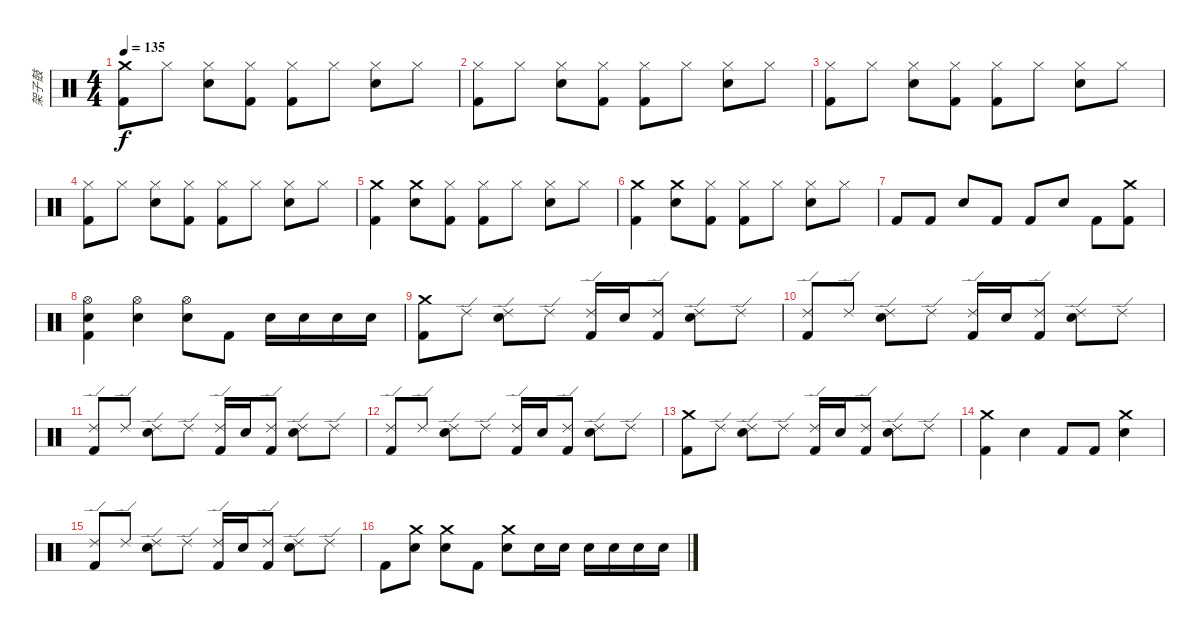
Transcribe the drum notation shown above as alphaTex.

\track ("架子鼓" "架子鼓") {instrument percussion}
\staff {score}
\articulation defaults
\ts (4 4)
\tempo 135
\clef neutral
\ks c
("Crash medium (hit)" "Kick (hit) 2").8{dy f} "Hi-Hat (closed)".8 ("Hi-Hat (closed)" "Electric Snare (hit)").8 ("Hi-Hat (closed)" "Kick (hit) 2").8 ("Hi-Hat (closed)" "Kick (hit) 2").8 "Hi-Hat (closed)".8 ("Hi-Hat (closed)" "Electric Snare (hit)").8 "Hi-Hat (closed)".8 |
("Hi-Hat (closed)" "Kick (hit) 2").8 "Hi-Hat (closed)".8 ("Hi-Hat (closed)" "Electric Snare (hit)").8 ("Hi-Hat (closed)" "Kick (hit) 2").8 ("Hi-Hat (closed)" "Kick (hit) 2").8 "Hi-Hat (closed)".8 ("Hi-Hat (closed)" "Electric Snare (hit)").8 "Hi-Hat (closed)".8 |
("Hi-Hat (closed)" "Kick (hit) 2").8 "Hi-Hat (closed)".8 ("Hi-Hat (closed)" "Electric Snare (hit)").8 ("Hi-Hat (closed)" "Kick (hit) 2").8 ("Hi-Hat (closed)" "Kick (hit) 2").8 "Hi-Hat (closed)".8 ("Hi-Hat (closed)" "Electric Snare (hit)").8 "Hi-Hat (closed)".8 |
("Hi-Hat (closed)" "Kick (hit) 2").8 "Hi-Hat (closed)".8 ("Hi-Hat (closed)" "Electric Snare (hit)").8 ("Hi-Hat (closed)" "Kick (hit) 2").8 ("Hi-Hat (closed)" "Kick (hit) 2").8 "Hi-Hat (closed)".8 ("Hi-Hat (closed)" "Electric Snare (hit)").8 "Hi-Hat (closed)".8 |
("Crash medium (hit)" "Kick (hit) 2").4 ("Crash medium (hit)" "Electric Snare (hit)").8 ("Hi-Hat (closed)" "Kick (hit) 2").8 ("Hi-Hat (closed)" "Kick (hit) 2").8 "Hi-Hat (closed)".8 ("Hi-Hat (closed)" "Electric Snare (hit)").8 "Hi-Hat (closed)".8 |
("Crash medium (hit)" "Kick (hit) 2").4 ("Crash medium (hit)" "Electric Snare (hit)").8 ("Hi-Hat (closed)" "Kick (hit) 2").8 ("Hi-Hat (closed)" "Kick (hit) 2").8 "Hi-Hat (closed)".8 ("Hi-Hat (closed)" "Electric Snare (hit)").8 "Hi-Hat (closed)".8 |
"Kick (hit) 2".8 "Kick (hit) 2".8 "Electric Snare (hit)".8 "Kick (hit) 2".8 "Kick (hit) 2".8 "Electric Snare (hit)".8 "Kick (hit) 2".8 ("Crash medium (hit)" "Kick (hit) 2").8 |
("Hi-Hat (open)" "Electric Snare (hit)" "Kick (hit) 2").4 ("Hi-Hat (open)" "Electric Snare (hit)").4 ("Hi-Hat (open)" "Electric Snare (hit)").8 "Kick (hit) 2".8 "Electric Snare (hit)".16 "Electric Snare (hit)".16 "Electric Snare (hit)".16 "Electric Snare (hit)".16 |
("Crash medium (hit)" "Kick (hit) 2").8 "Ride (edge) 2".8 ("Ride (edge) 2" "Electric Snare (hit)").8 "Ride (edge) 2".8 ("Ride (edge) 2" "Kick (hit) 2").16 "Electric Snare (hit)".16 ("Ride (edge) 2" "Kick (hit) 2").8 ("Ride (edge) 2" "Electric Snare (hit)").8 "Ride (edge) 2".8 |
("Ride (edge) 2" "Kick (hit) 2").8 "Ride (edge) 2".8 ("Ride (edge) 2" "Electric Snare (hit)").8 "Ride (edge) 2".8 ("Ride (edge) 2" "Kick (hit) 2").16 "Electric Snare (hit)".16 ("Ride (edge) 2" "Kick (hit) 2").8 ("Ride (edge) 2" "Electric Snare (hit)").8 "Ride (edge) 2".8 |
("Ride (edge) 2" "Kick (hit) 2").8 "Ride (edge) 2".8 ("Ride (edge) 2" "Electric Snare (hit)").8 "Ride (edge) 2".8 ("Ride (edge) 2" "Kick (hit) 2").16 "Electric Snare (hit)".16 ("Ride (edge) 2" "Kick (hit) 2").8 ("Ride (edge) 2" "Electric Snare (hit)").8 "Ride (edge) 2".8 |
("Ride (edge) 2" "Kick (hit) 2").8 "Ride (edge) 2".8 ("Ride (edge) 2" "Electric Snare (hit)").8 "Ride (edge) 2".8 ("Ride (edge) 2" "Kick (hit) 2").16 "Electric Snare (hit)".16 ("Ride (edge) 2" "Kick (hit) 2").8 ("Ride (edge) 2" "Electric Snare (hit)").8 "Ride (edge) 2".8 |
("Crash medium (hit)" "Kick (hit) 2").8 "Ride (edge) 2".8 ("Ride (edge) 2" "Electric Snare (hit)").8 "Ride (edge) 2".8 ("Ride (edge) 2" "Kick (hit) 2").16 "Electric Snare (hit)".16 ("Ride (edge) 2" "Kick (hit) 2").8 ("Ride (edge) 2" "Electric Snare (hit)").8 "Ride (edge) 2".8 |
("Crash medium (hit)" "Kick (hit) 2").4 "Electric Snare (hit)".4 "Kick (hit) 2".8 "Kick (hit) 2".8 ("Crash medium (hit)" "Electric Snare (hit)").4 |
("Ride (edge) 2" "Kick (hit) 2").8 "Ride (edge) 2".8 ("Ride (edge) 2" "Electric Snare (hit)").8 "Ride (edge) 2".8 ("Ride (edge) 2" "Kick (hit) 2").16 "Electric Snare (hit)".16 ("Ride (edge) 2" "Kick (hit) 2").8 ("Ride (edge) 2" "Electric Snare (hit)").8 "Ride (edge) 2".8 |
"Kick (hit) 2".8 ("Crash medium (hit)" "Electric Snare (hit)").8 ("Crash medium (hit)" "Electric Snare (hit)").8 "Kick (hit) 2".8 ("Crash medium (hit)" "Electric Snare (hit)").8 "Electric Snare (hit)".16 "Electric Snare (hit)".16 "Electric Snare (hit)".16 "Electric Snare (hit)".16 "Electric Snare (hit)".16 "Electric Snare (hit)".16
